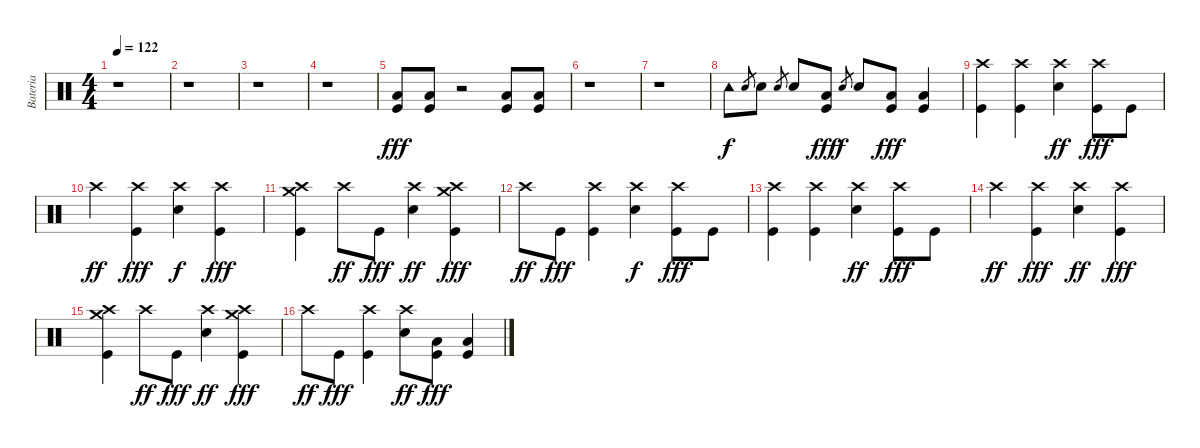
\track ("Bateria" "Bateria") {instrument percussion}
\staff {score}
\articulation defaults
\ts (4 4)
\tempo 122
\clef neutral
\ks c
r.1{dy fff} |
r.1 |
r.1 |
r.1 |
("Low Tom (hit)" "Kick (hit)").8 ("Low Tom (hit)" "Kick (hit)").8 r.2 ("Low Tom (hit)" "Kick (hit)").8 ("Low Tom (hit)" "Kick (hit)").8 |
r.1 |
r.1 |
"Tambourine (hit)".8{dy f} "Snare (hit) 2".8{gr} "Snare (hit) 2".8 "Snare (hit) 2".8{gr} "Snare (hit) 2".8 ("Low Tom (hit)" "Kick (hit)").8{dy fff} "Snare (hit) 2".8{gr dy f} "Snare (hit) 2".8 ("Low Tom (hit)" "Kick (hit)").8{dy fff} ("Low Tom (hit)" "Kick (hit)").4 |
("Crash high (hit)" "Kick (hit)").4 ("Crash high (hit)" "Kick (hit)").4 ("Crash high (hit)" "Snare (hit) 2").4{dy ff} ("Crash high (hit)" "Kick (hit)").8{dy fff} "Kick (hit)".8 |
"Crash high (hit)".4{dy ff} ("Crash high (hit)" "Kick (hit)").4{dy fff} ("Crash high (hit)" "Snare (hit) 2").4{dy f} ("Crash high (hit)" "Kick (hit)").4{dy fff} |
("Crash high (hit)" "Crash medium (hit)" "Kick (hit)").4 "Crash high (hit)".8{dy ff} "Kick (hit)".8{dy fff} ("Crash high (hit)" "Snare (hit) 2").4{dy ff} ("Crash high (hit)" "Crash medium (hit)" "Kick (hit)").4{dy fff} |
"Crash high (hit)".8{dy ff} "Kick (hit)".8{dy fff} ("Crash high (hit)" "Kick (hit)").4 ("Crash high (hit)" "Snare (hit) 2").4{dy f} ("Crash high (hit)" "Kick (hit)").8{dy fff} "Kick (hit)".8 |
("Crash high (hit)" "Kick (hit)").4 ("Crash high (hit)" "Kick (hit)").4 ("Crash high (hit)" "Snare (hit) 2").4{dy ff} ("Crash high (hit)" "Kick (hit)").8{dy fff} "Kick (hit)".8 |
"Crash high (hit)".4{dy ff} ("Crash high (hit)" "Kick (hit)").4{dy fff} ("Crash high (hit)" "Snare (hit) 2").4{dy ff} ("Crash high (hit)" "Kick (hit)").4{dy fff} |
("Crash high (hit)" "Crash medium (hit)" "Kick (hit)").4 "Crash high (hit)".8{dy ff} "Kick (hit)".8{dy fff} ("Crash high (hit)" "Snare (hit) 2").4{dy ff} ("Crash high (hit)" "Crash medium (hit)" "Kick (hit)").4{dy fff} |
"Crash high (hit)".8{dy ff} "Kick (hit)".8{dy fff} ("Crash high (hit)" "Kick (hit)").4 ("Crash high (hit)" "Snare (hit) 2").8{dy ff} ("Low Tom (hit)" "Kick (hit)").8{dy fff} ("Low Tom (hit)" "Kick (hit)").4
